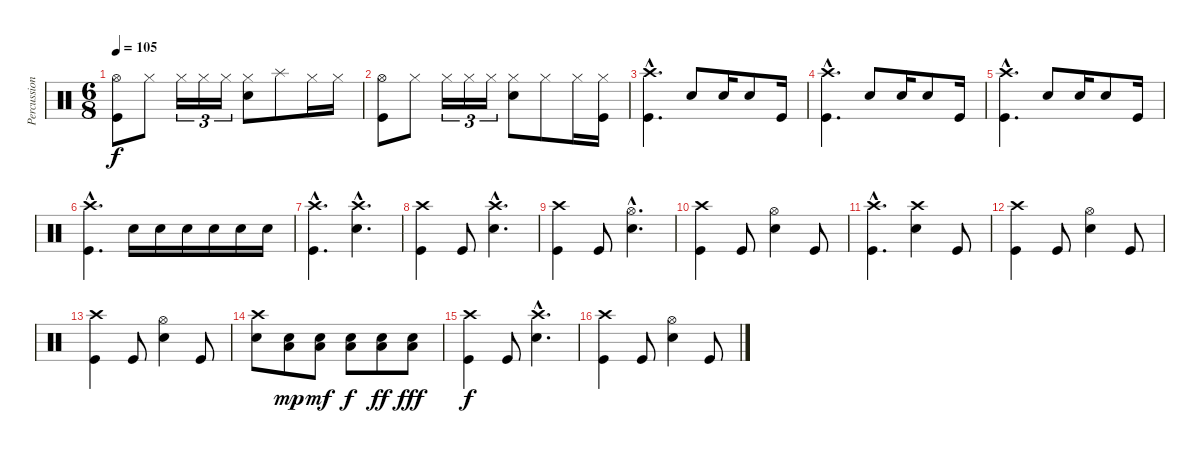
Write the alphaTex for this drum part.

\track ("Percussion" "Percussion") {instrument percussion}
\staff {score}
\articulation defaults
\ts (6 8)
\tempo 105
\clef neutral
\ks c
("Hi-Hat (open)" "Kick (hit)").8{dy f} "Hi-Hat (closed)".8 "Hi-Hat (closed)".16{tu (3 2)} "Hi-Hat (closed)".16{tu (3 2)} "Hi-Hat (closed)".16{tu (3 2)} ("Hi-Hat (closed)" "Electric Snare (hit)").8 "Splash (hit)".8 "Hi-Hat (closed)".16 "Hi-Hat (closed)".16 |
("Hi-Hat (open)" "Kick (hit)").8 "Hi-Hat (closed)".8 "Hi-Hat (closed)".16{tu (3 2)} "Hi-Hat (closed)".16{tu (3 2)} "Hi-Hat (closed)".16{tu (3 2)} ("Hi-Hat (closed)" "Electric Snare (hit)").8 "Hi-Hat (closed)".8 "Hi-Hat (closed)".16 ("Hi-Hat (closed)" "Kick (hit)").16 |
("Crash high (hit)"{hac} "Kick (hit)"{hac}).4{d} "Electric Snare (hit)".8 "Electric Snare (hit)".16 "Electric Snare (hit)".8 "Kick (hit)".16 |
("Crash high (hit)"{hac} "Kick (hit)"{hac}).4{d} "Electric Snare (hit)".8 "Electric Snare (hit)".16 "Electric Snare (hit)".8 "Kick (hit)".16 |
("Crash high (hit)"{hac} "Kick (hit)"{hac}).4{d} "Electric Snare (hit)".8 "Electric Snare (hit)".16 "Electric Snare (hit)".8 "Kick (hit)".16 |
("Crash high (hit)"{hac} "Kick (hit)"{hac}).4{d} "Electric Snare (hit)".16 "Electric Snare (hit)".16 "Electric Snare (hit)".16 "Electric Snare (hit)".16 "Electric Snare (hit)".16 "Electric Snare (hit)".16 |
("Crash high (hit)"{hac} "Kick (hit)"{hac}).4{d} ("Crash high (hit)"{hac} "Electric Snare (hit)"{hac}).4{d} |
("Crash high (hit)" "Kick (hit)").4 "Kick (hit)".8 ("Crash high (hit)"{hac} "Electric Snare (hit)"{hac}).4{d} |
("Crash high (hit)" "Kick (hit)").4 "Kick (hit)".8 ("Hi-Hat (open)"{hac} "Electric Snare (hit)"{hac}).4{d} |
("Crash high (hit)" "Kick (hit)").4 "Kick (hit)".8 ("Hi-Hat (open)" "Electric Snare (hit)").4 "Kick (hit)".8 |
("Crash high (hit)"{hac} "Kick (hit)"{hac}).4{d} ("Crash high (hit)" "Electric Snare (hit)").4 "Kick (hit)".8 |
("Crash high (hit)" "Kick (hit)").4 "Kick (hit)".8 ("Hi-Hat (open)" "Electric Snare (hit)").4 "Kick (hit)".8 |
("Crash high (hit)" "Kick (hit)").4 "Kick (hit)".8 ("Hi-Hat (open)" "Electric Snare (hit)").4 "Kick (hit)".8 |
("Crash high (hit)" "Electric Snare (hit)").8 ("Low Floor Tom (hit)" "Electric Snare (hit)").8{dy mp} ("Low Floor Tom (hit)" "Electric Snare (hit)").8{dy mf} ("Low Floor Tom (hit)" "Electric Snare (hit)").8{dy f} ("Low Floor Tom (hit)" "Electric Snare (hit)").8{dy ff} ("Low Floor Tom (hit)" "Electric Snare (hit)").8{dy fff} |
("Crash high (hit)" "Kick (hit)").4{dy f} "Kick (hit)".8 ("Crash high (hit)"{hac} "Electric Snare (hit)"{hac}).4{d} |
("Crash high (hit)" "Kick (hit)").4 "Kick (hit)".8 ("Hi-Hat (open)" "Electric Snare (hit)").4 "Kick (hit)".8
